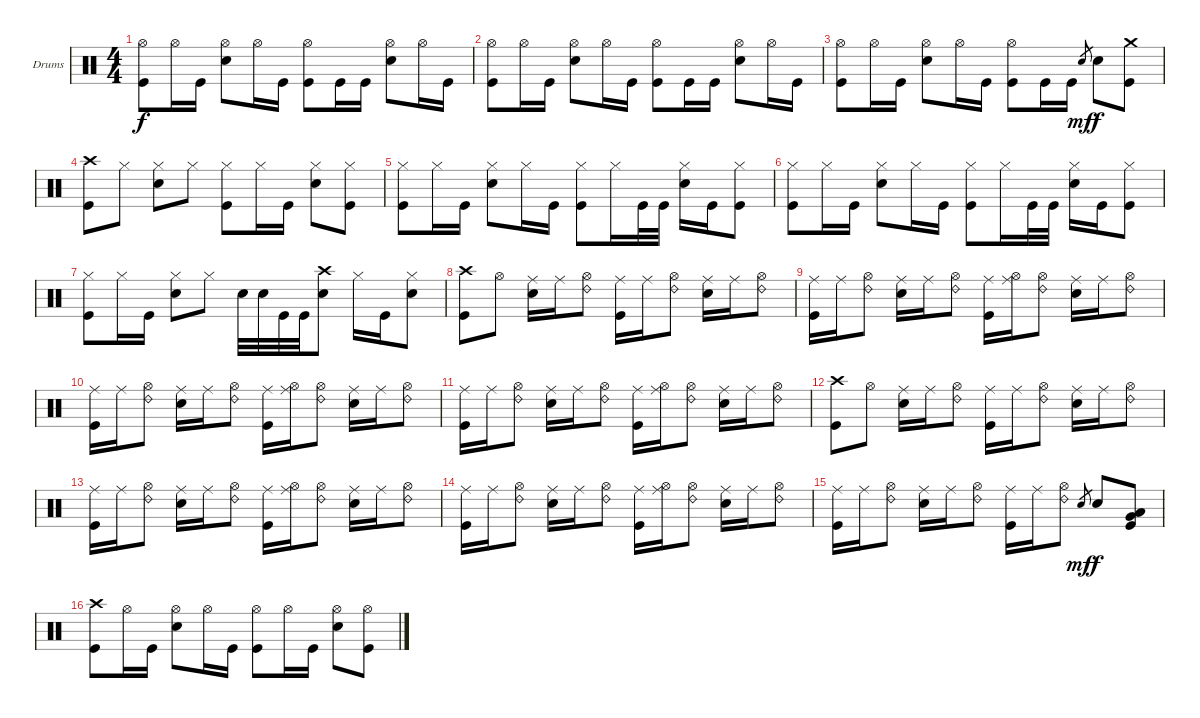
\bracketExtendMode groupsimilarinstruments
\firstSystemTrackNameOrientation horizontal
\otherSystemsTrackNameOrientation horizontal
\track ("Drumkit" "Drums") {instrument percussion}
\staff {score}
\articulation defaults
\ts (4 4)
\tempo (80 hide)
\clef neutral
\ks c
("Hi-Hat (open)" "Kick (hit)").8{dy f} "Hi-Hat (open)".16 "Kick (hit)".16 ("Hi-Hat (open)" "Snare (hit) 2").8 "Hi-Hat (open)".16 "Kick (hit)".16 ("Hi-Hat (open)" "Kick (hit)").8 "Kick (hit)".16 "Kick (hit)".16 ("Hi-Hat (open)" "Snare (hit) 2").8 "Hi-Hat (open)".16 "Kick (hit)".16 |
("Hi-Hat (open)" "Kick (hit)").8 "Hi-Hat (open)".16 "Kick (hit)".16 ("Hi-Hat (open)" "Snare (hit) 2").8 "Hi-Hat (open)".16 "Kick (hit)".16 ("Hi-Hat (open)" "Kick (hit)").8 "Kick (hit)".16 "Kick (hit)".16 ("Hi-Hat (open)" "Snare (hit) 2").8 "Hi-Hat (open)".16 "Kick (hit)".16 |
("Hi-Hat (open)" "Kick (hit)").8 "Hi-Hat (open)".16 "Kick (hit)".16 ("Hi-Hat (open)" "Snare (hit) 2").8 "Hi-Hat (open)".16 "Kick (hit)".16 ("Hi-Hat (open)" "Kick (hit)").8 "Kick (hit)".16 "Kick (hit)".16 "Snare (hit) 2".8{gr dy mf} "Snare (hit) 2".8{dy f} ("Crash medium (hit)" "Kick (hit)").8 |
("Crash high (hit)" "Kick (hit)").8 "Hi-Hat (closed)".8 ("Hi-Hat (closed)" "Snare (hit) 2").8 "Hi-Hat (closed)".8 ("Hi-Hat (closed)" "Kick (hit)").8 "Hi-Hat (closed)".16 "Kick (hit)".16 ("Hi-Hat (closed)" "Snare (hit) 2").8 ("Hi-Hat (closed)" "Kick (hit)").8 |
("Hi-Hat (closed)" "Kick (hit)").8 "Hi-Hat (closed)".16 "Kick (hit)".16 ("Hi-Hat (closed)" "Snare (hit) 2").8 "Hi-Hat (closed)".16 "Kick (hit)".16 ("Hi-Hat (closed)" "Kick (hit)").8 "Hi-Hat (closed)".16 "Kick (hit)".32 "Kick (hit)".32 ("Hi-Hat (closed)" "Snare (hit) 2").16 "Kick (hit)".16 ("Hi-Hat (closed)" "Kick (hit)").8 |
("Hi-Hat (closed)" "Kick (hit)").8 "Hi-Hat (closed)".16 "Kick (hit)".16 ("Hi-Hat (closed)" "Snare (hit) 2").8 "Hi-Hat (closed)".16 "Kick (hit)".16 ("Hi-Hat (closed)" "Kick (hit)").8 "Hi-Hat (closed)".16 "Kick (hit)".32 "Kick (hit)".32 ("Hi-Hat (closed)" "Snare (hit) 2").16 "Kick (hit)".16 ("Hi-Hat (closed)" "Kick (hit)").8 |
("Hi-Hat (closed)" "Kick (hit)").8 "Hi-Hat (closed)".16 "Kick (hit)".16 ("Hi-Hat (closed)" "Snare (hit) 2").8 "Hi-Hat (closed)".8 "Snare (hit) 2".32 "Snare (hit) 2".32 "Kick (hit)".32 "Kick (hit)".32 ("Crash high (hit)" "Snare (hit) 2").8 "Hi-Hat (closed)".16 "Kick (hit)".16 ("Hi-Hat (closed)" "Snare (hit) 2").8 |
("Crash high (hit)" "Kick (hit)").8 "Hi-Hat (open)".8 ("Ride (middle)" "Snare (hit) 2").16 "Ride (middle)".16 ("Hi-Hat (open)" "Ride (bell) 2").8 ("Ride (middle)" "Kick (hit)").16 "Ride (middle)".16 ("Hi-Hat (open)" "Ride (bell) 2").8 ("Ride (middle)" "Snare (hit) 2").16 "Ride (middle)".16 ("Hi-Hat (open)" "Ride (bell) 2").8 |
("Ride (middle)" "Kick (hit)").16 "Ride (middle)".16 ("Hi-Hat (open)" "Ride (bell) 2").8 ("Ride (middle)" "Snare (hit) 2").16 "Ride (middle)".16 ("Hi-Hat (open)" "Ride (bell) 2").8 ("Ride (middle)" "Kick (hit)").16 ("Hi-Hat (open)" "Ride (middle)").16 ("Hi-Hat (open)" "Ride (bell) 2").8 ("Ride (middle)" "Snare (hit) 2").16 "Ride (middle)".16 ("Hi-Hat (open)" "Ride (bell) 2").8 |
("Ride (middle)" "Kick (hit)").16 "Ride (middle)".16 ("Hi-Hat (open)" "Ride (bell) 2").8 ("Ride (middle)" "Snare (hit) 2").16 "Ride (middle)".16 ("Hi-Hat (open)" "Ride (bell) 2").8 ("Ride (middle)" "Kick (hit)").16 ("Hi-Hat (open)" "Ride (middle)").16 ("Hi-Hat (open)" "Ride (bell) 2").8 ("Ride (middle)" "Snare (hit) 2").16 "Ride (middle)".16 ("Hi-Hat (open)" "Ride (bell) 2").8 |
("Ride (middle)" "Kick (hit)").16 "Ride (middle)".16 ("Hi-Hat (open)" "Ride (bell) 2").8 ("Ride (middle)" "Snare (hit) 2").16 "Ride (middle)".16 ("Hi-Hat (open)" "Ride (bell) 2").8 ("Ride (middle)" "Kick (hit)").16 ("Hi-Hat (open)" "Ride (middle)").16 ("Hi-Hat (open)" "Ride (bell) 2").8 ("Ride (middle)" "Snare (hit) 2").16 "Ride (middle)".16 ("Hi-Hat (open)" "Ride (bell) 2").8 |
("Crash high (hit)" "Kick (hit)").8 "Hi-Hat (open)".8 ("Ride (middle)" "Snare (hit) 2").16 "Ride (middle)".16 ("Hi-Hat (open)" "Ride (bell) 2").8 ("Ride (middle)" "Kick (hit)").16 "Ride (middle)".16 ("Hi-Hat (open)" "Ride (bell) 2").8 ("Ride (middle)" "Snare (hit) 2").16 "Ride (middle)".16 ("Hi-Hat (open)" "Ride (bell) 2").8 |
("Ride (middle)" "Kick (hit)").16 "Ride (middle)".16 ("Hi-Hat (open)" "Ride (bell) 2").8 ("Ride (middle)" "Snare (hit) 2").16 "Ride (middle)".16 ("Hi-Hat (open)" "Ride (bell) 2").8 ("Ride (middle)" "Kick (hit)").16 ("Hi-Hat (open)" "Ride (middle)").16 ("Hi-Hat (open)" "Ride (bell) 2").8 ("Ride (middle)" "Snare (hit) 2").16 "Ride (middle)".16 ("Hi-Hat (open)" "Ride (bell) 2").8 |
("Ride (middle)" "Kick (hit)").16 "Ride (middle)".16 ("Hi-Hat (open)" "Ride (bell) 2").8 ("Ride (middle)" "Snare (hit) 2").16 "Ride (middle)".16 ("Hi-Hat (open)" "Ride (bell) 2").8 ("Ride (middle)" "Kick (hit)").16 ("Hi-Hat (open)" "Ride (middle)").16 ("Hi-Hat (open)" "Ride (bell) 2").8 ("Ride (middle)" "Snare (hit) 2").16 "Ride (middle)".16 ("Hi-Hat (open)" "Ride (bell) 2").8 |
("Ride (middle)" "Kick (hit)").16 "Ride (middle)".16 ("Hi-Hat (open)" "Ride (bell) 2").8 ("Ride (middle)" "Snare (hit) 2").16 "Ride (middle)".16 ("Hi-Hat (open)" "Ride (bell) 2").8 ("Ride (middle)" "Kick (hit)").16 "Ride (middle)".16 ("Hi-Hat (open)" "Ride (bell) 2").8 "Snare (hit) 2".8{gr dy mf} "Snare (hit) 2".8{dy f} ("Low Tom (hit)" "Very Low Tom (hit)" "Kick (hit)").8 |
("Crash high (hit)" "Kick (hit)").8 "Hi-Hat (open)".16 "Kick (hit)".16 ("Hi-Hat (open)" "Snare (hit) 2").8 "Hi-Hat (open)".16 "Kick (hit)".16 ("Hi-Hat (open)" "Kick (hit)").8 "Hi-Hat (open)".16 "Kick (hit)".16 ("Hi-Hat (open)" "Snare (hit) 2").8 ("Hi-Hat (open)" "Kick (hit)").8
